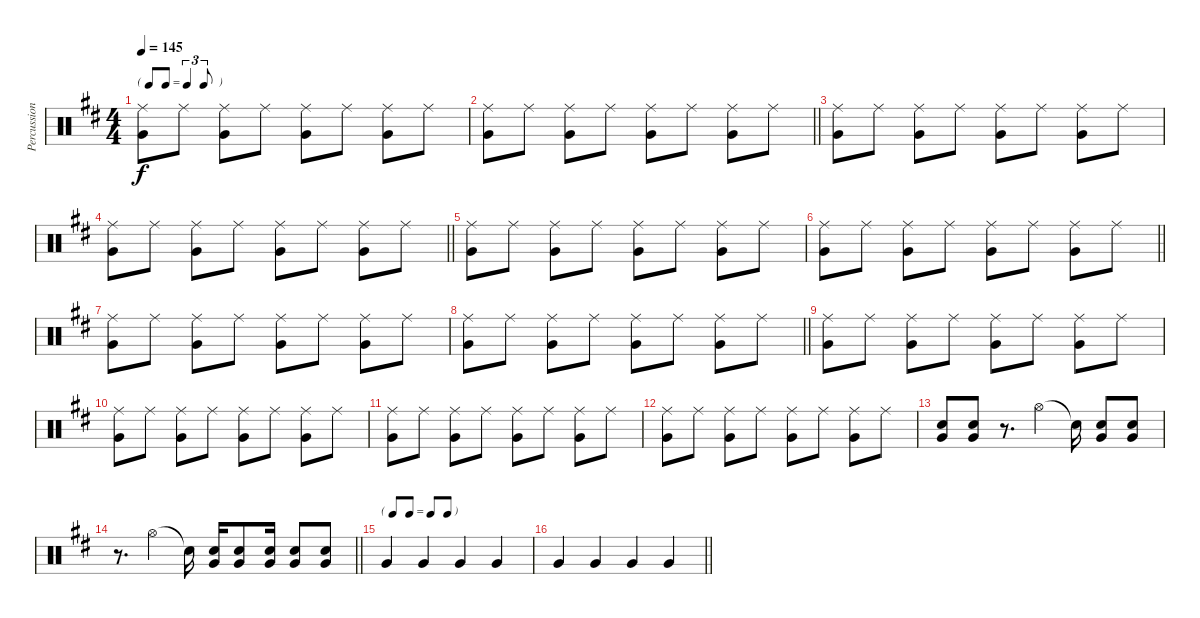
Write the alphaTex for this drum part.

\track ("Percussion" "Percussion") {instrument percussion}
\staff {score}
\articulation defaults
\ts (4 4)
\tf triplet8th
\tempo 145
\clef neutral
\ks d
("Very Low Tom (hit)" "Ride (middle)").8{dy f} "Ride (middle)".8 ("Very Low Tom (hit)" "Ride (middle)").8 "Ride (middle)".8 ("Very Low Tom (hit)" "Ride (middle)").8 "Ride (middle)".8 ("Very Low Tom (hit)" "Ride (middle)").8 "Ride (middle)".8 |
\barLineRight lightlight
("Very Low Tom (hit)" "Ride (middle)").8 "Ride (middle)".8 ("Very Low Tom (hit)" "Ride (middle)").8 "Ride (middle)".8 ("Very Low Tom (hit)" "Ride (middle)").8 "Ride (middle)".8 ("Very Low Tom (hit)" "Ride (middle)").8 "Ride (middle)".8 |
("Very Low Tom (hit)" "Ride (middle)").8 "Ride (middle)".8 ("Very Low Tom (hit)" "Ride (middle)").8 "Ride (middle)".8 ("Very Low Tom (hit)" "Ride (middle)").8 "Ride (middle)".8 ("Very Low Tom (hit)" "Ride (middle)").8 "Ride (middle)".8 |
\barLineRight lightlight
("Very Low Tom (hit)" "Ride (middle)").8 "Ride (middle)".8 ("Very Low Tom (hit)" "Ride (middle)").8 "Ride (middle)".8 ("Very Low Tom (hit)" "Ride (middle)").8 "Ride (middle)".8 ("Very Low Tom (hit)" "Ride (middle)").8 "Ride (middle)".8 |
("Very Low Tom (hit)" "Ride (middle)").8 "Ride (middle)".8 ("Very Low Tom (hit)" "Ride (middle)").8 "Ride (middle)".8 ("Very Low Tom (hit)" "Ride (middle)").8 "Ride (middle)".8 ("Very Low Tom (hit)" "Ride (middle)").8 "Ride (middle)".8 |
\barLineRight lightlight
("Very Low Tom (hit)" "Ride (middle)").8 "Ride (middle)".8 ("Very Low Tom (hit)" "Ride (middle)").8 "Ride (middle)".8 ("Very Low Tom (hit)" "Ride (middle)").8 "Ride (middle)".8 ("Very Low Tom (hit)" "Ride (middle)").8 "Ride (middle)".8 |
("Very Low Tom (hit)" "Ride (middle)").8 "Ride (middle)".8 ("Very Low Tom (hit)" "Ride (middle)").8 "Ride (middle)".8 ("Very Low Tom (hit)" "Ride (middle)").8 "Ride (middle)".8 ("Very Low Tom (hit)" "Ride (middle)").8 "Ride (middle)".8 |
\barLineRight lightlight
("Very Low Tom (hit)" "Ride (middle)").8 "Ride (middle)".8 ("Very Low Tom (hit)" "Ride (middle)").8 "Ride (middle)".8 ("Very Low Tom (hit)" "Ride (middle)").8 "Ride (middle)".8 ("Very Low Tom (hit)" "Ride (middle)").8 "Ride (middle)".8 |
("Very Low Tom (hit)" "Ride (middle)").8 "Ride (middle)".8 ("Very Low Tom (hit)" "Ride (middle)").8 "Ride (middle)".8 ("Very Low Tom (hit)" "Ride (middle)").8 "Ride (middle)".8 ("Very Low Tom (hit)" "Ride (middle)").8 "Ride (middle)".8 |
("Very Low Tom (hit)" "Ride (middle)").8 "Ride (middle)".8 ("Very Low Tom (hit)" "Ride (middle)").8 "Ride (middle)".8 ("Very Low Tom (hit)" "Ride (middle)").8 "Ride (middle)".8 ("Very Low Tom (hit)" "Ride (middle)").8 "Ride (middle)".8 |
("Very Low Tom (hit)" "Ride (middle)").8 "Ride (middle)".8 ("Very Low Tom (hit)" "Ride (middle)").8 "Ride (middle)".8 ("Very Low Tom (hit)" "Ride (middle)").8 "Ride (middle)".8 ("Very Low Tom (hit)" "Ride (middle)").8 "Ride (middle)".8 |
("Very Low Tom (hit)" "Ride (middle)").8 "Ride (middle)".8 ("Very Low Tom (hit)" "Ride (middle)").8 "Ride (middle)".8 ("Very Low Tom (hit)" "Ride (middle)").8 "Ride (middle)".8 ("Very Low Tom (hit)" "Ride (middle)").8 "Ride (middle)".8 |
("Snare (hit) 2" "Very Low Tom (hit)").8 ("Snare (hit) 2" "Very Low Tom (hit)").8 r.8{d} "Hi-Hat (open)".4 "Snare (hit)"{t}.16 ("Snare (hit) 2" "Very Low Tom (hit)").8 ("Snare (hit) 2" "Very Low Tom (hit)").8 |
\barLineRight lightlight
r.8{d} "Hi-Hat (open)".4 "Snare (hit)"{t}.16 ("Snare (hit) 2" "Very Low Tom (hit)").16 ("Snare (hit) 2" "Very Low Tom (hit)").8 ("Snare (hit) 2" "Very Low Tom (hit)").16 ("Snare (hit) 2" "Very Low Tom (hit)").8 ("Snare (hit) 2" "Very Low Tom (hit)").8 |
\tf none "Very Low Tom (hit)".4 "Very Low Tom (hit)".4 "Very Low Tom (hit)".4 "Very Low Tom (hit)".4
|
\barLineRight lightlight "Very Low Tom (hit)".4 "Very Low Tom (hit)".4 "Very Low Tom (hit)".4 "Very Low Tom (hit)".4
